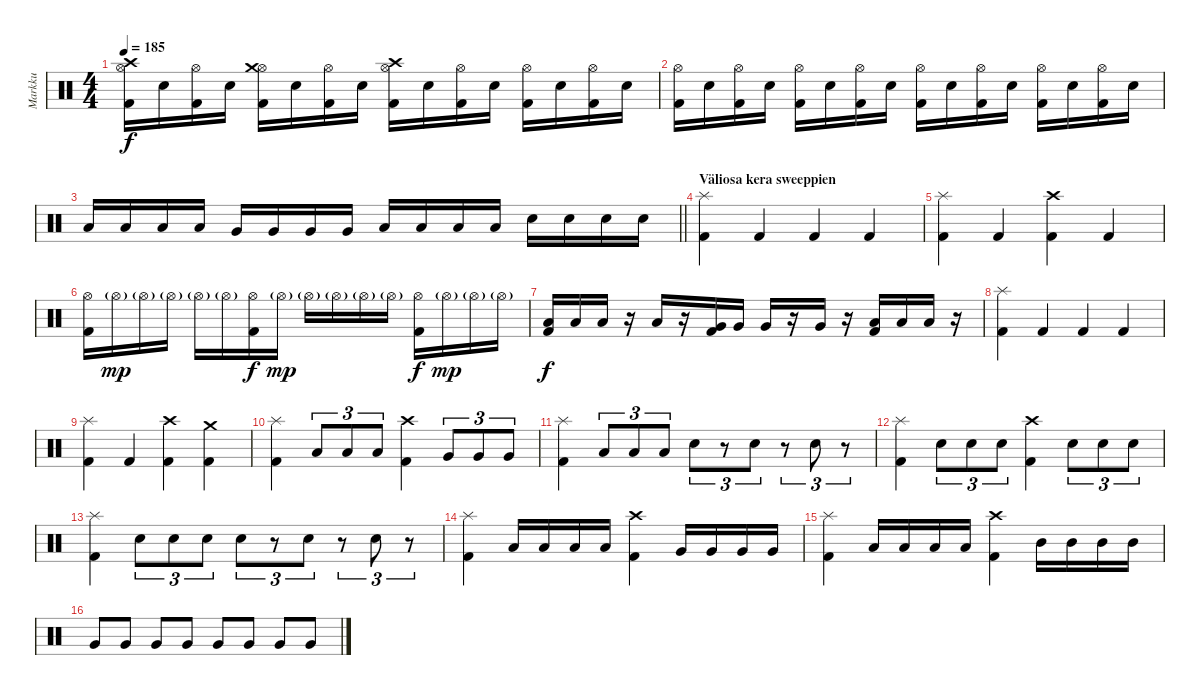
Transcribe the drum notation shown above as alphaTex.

\track ("Markku" "Markku") {instrument percussion}
\staff {score}
\articulation defaults
\ts (4 4)
\tempo 185
\clef neutral
\ks c
("Kick (hit) 2" "Hi-Hat (open)" "Crash high (hit)").16{dy f} "Snare (hit) 2".16 ("Kick (hit) 2" "Hi-Hat (open)").16 "Snare (hit) 2".16 ("Kick (hit) 2" "Hi-Hat (open)" "Crash medium (hit)").16 "Snare (hit) 2".16 ("Kick (hit) 2" "Hi-Hat (open)").16 "Snare (hit) 2".16 ("Kick (hit) 2" "Hi-Hat (open)" "Crash high (hit)").16 "Snare (hit) 2".16 ("Kick (hit) 2" "Hi-Hat (open)").16 "Snare (hit) 2".16 ("Kick (hit) 2" "Hi-Hat (open)").16 "Snare (hit) 2".16 ("Kick (hit) 2" "Hi-Hat (open)").16 "Snare (hit) 2".16 |
("Kick (hit) 2" "Hi-Hat (open)").16 "Snare (hit) 2".16 ("Kick (hit) 2" "Hi-Hat (open)").16 "Snare (hit) 2".16 ("Kick (hit) 2" "Hi-Hat (open)").16 "Snare (hit) 2".16 ("Kick (hit) 2" "Hi-Hat (open)").16 "Snare (hit) 2".16 ("Kick (hit) 2" "Hi-Hat (open)").16 "Snare (hit) 2".16 ("Kick (hit) 2" "Hi-Hat (open)").16 "Snare (hit) 2".16 ("Kick (hit) 2" "Hi-Hat (open)").16 "Snare (hit) 2".16 ("Kick (hit) 2" "Hi-Hat (open)").16 "Snare (hit) 2".16 |
\barLineRight lightlight "Low Tom (hit)".16 "Low Tom (hit)".16 "Low Tom (hit)".16 "Low Tom (hit)".16 "Very Low Tom (hit)".16 "Very Low Tom (hit)".16 "Very Low Tom (hit)".16 "Very Low Tom (hit)".16 "Low Floor Tom (hit)".16 "Low Floor Tom (hit)".16 "Low Floor Tom (hit)".16 "Low Floor Tom (hit)".16 "Snare (hit) 2".16 "Snare (hit) 2".16 "Snare (hit) 2".16 "Snare (hit) 2".16
|
\section ("" "Väliosa kera sweeppien")
("Kick (hit) 2" "Splash (hit)").4 "Kick (hit) 2".4 "Kick (hit) 2".4 "Kick (hit) 2".4 |
("Kick (hit) 2" "Splash (hit)").4 "Kick (hit) 2".4 ("Kick (hit) 2" "Crash high (hit)").4 "Kick (hit) 2".4 |
("Kick (hit) 2" "Hi-Hat (open)").16 "Hi-Hat (open)"{g}.16{dy mp} "Hi-Hat (open)"{g}.16 "Hi-Hat (open)"{g}.16 "Hi-Hat (open)"{g}.16 "Hi-Hat (open)"{g}.16 ("Kick (hit) 2" "Hi-Hat (open)").16{dy f} "Hi-Hat (open)"{g}.16{dy mp} "Hi-Hat (open)"{g}.16 "Hi-Hat (open)"{g}.16 "Hi-Hat (open)"{g}.16 "Hi-Hat (open)"{g}.16 ("Kick (hit) 2" "Hi-Hat (open)").16{dy f} "Hi-Hat (open)"{g}.16{dy mp} "Hi-Hat (open)"{g}.16 "Hi-Hat (open)"{g}.16 |
("Kick (hit) 2" "Low Tom (hit)").16{dy f} "Low Tom (hit)".16 "Low Tom (hit)".16 r.16 "Low Tom (hit)".16 r.16 ("Kick (hit) 2" "Very Low Tom (hit)").16 "Very Low Tom (hit)".16 "Very Low Tom (hit)".16 r.16 "Very Low Tom (hit)".16 r.16 ("Kick (hit) 2" "Low Floor Tom (hit)").16 "Low Floor Tom (hit)".16 "Low Floor Tom (hit)".16 r.16 |
("Kick (hit) 2" "Splash (hit)").4 "Kick (hit) 2".4 "Kick (hit) 2".4 "Kick (hit) 2".4 |
("Kick (hit) 2" "Splash (hit)").4 "Kick (hit) 2".4 ("Kick (hit) 2" "Crash high (hit)").4 ("Kick (hit) 2" "Crash medium (hit)").4 |
("Kick (hit) 2" "Splash (hit)").4 "Low Tom (hit)".8{tu (3 2)} "Low Tom (hit)".8{tu (3 2)} "Low Tom (hit)".8{tu (3 2)} ("Kick (hit) 2" "Crash high (hit)").4 "Very Low Tom (hit)".8{tu (3 2)} "Very Low Tom (hit)".8{tu (3 2)} "Very Low Tom (hit)".8{tu (3 2)} |
("Kick (hit) 2" "Splash (hit)").4 "Low Floor Tom (hit)".8{tu (3 2)} "Low Floor Tom (hit)".8{tu (3 2)} "Low Floor Tom (hit)".8{tu (3 2)} "Snare (hit) 2".8{tu (3 2)} r.8{tu (3 2)} "Snare (hit) 2".8{tu (3 2)} r.8{tu (3 2)} "Snare (hit) 2".8{tu (3 2)} r.8{tu (3 2)} |
("Kick (hit) 2" "Splash (hit)").4 "Snare (hit) 2".8{tu (3 2)} "Snare (hit) 2".8{tu (3 2)} "Snare (hit) 2".8{tu (3 2)} ("Kick (hit) 2" "Crash high (hit)").4 "Snare (hit) 2".8{tu (3 2)} "Snare (hit) 2".8{tu (3 2)} "Snare (hit) 2".8{tu (3 2)} |
("Kick (hit) 2" "Splash (hit)").4 "Snare (hit) 2".8{tu (3 2)} "Snare (hit) 2".8{tu (3 2)} "Snare (hit) 2".8{tu (3 2)} "Snare (hit) 2".8{tu (3 2)} r.8{tu (3 2)} "Snare (hit) 2".8{tu (3 2)} r.8{tu (3 2)} "Snare (hit) 2".8{tu (3 2)} r.8{tu (3 2)} |
("Kick (hit) 2" "Splash (hit)").4 "Low Tom (hit)".16 "Low Tom (hit)".16 "Low Tom (hit)".16 "Low Tom (hit)".16 ("Kick (hit) 2" "Crash high (hit)").4 "Very Low Tom (hit)".16 "Very Low Tom (hit)".16 "Very Low Tom (hit)".16 "Very Low Tom (hit)".16 |
("Kick (hit) 2" "Splash (hit)").4 "Low Floor Tom (hit)".16 "Low Floor Tom (hit)".16 "Low Floor Tom (hit)".16 "Low Floor Tom (hit)".16 ("Kick (hit) 2" "Crash high (hit)").4 "Mid Tom (hit)".16 "Mid Tom (hit)".16 "Mid Tom (hit)".16 "Mid Tom (hit)".16 |
"Very Low Tom (hit)".8 "Very Low Tom (hit)".8 "Very Low Tom (hit)".8 "Very Low Tom (hit)".8 "Very Low Tom (hit)".8 "Very Low Tom (hit)".8 "Very Low Tom (hit)".8 "Very Low Tom (hit)".8
